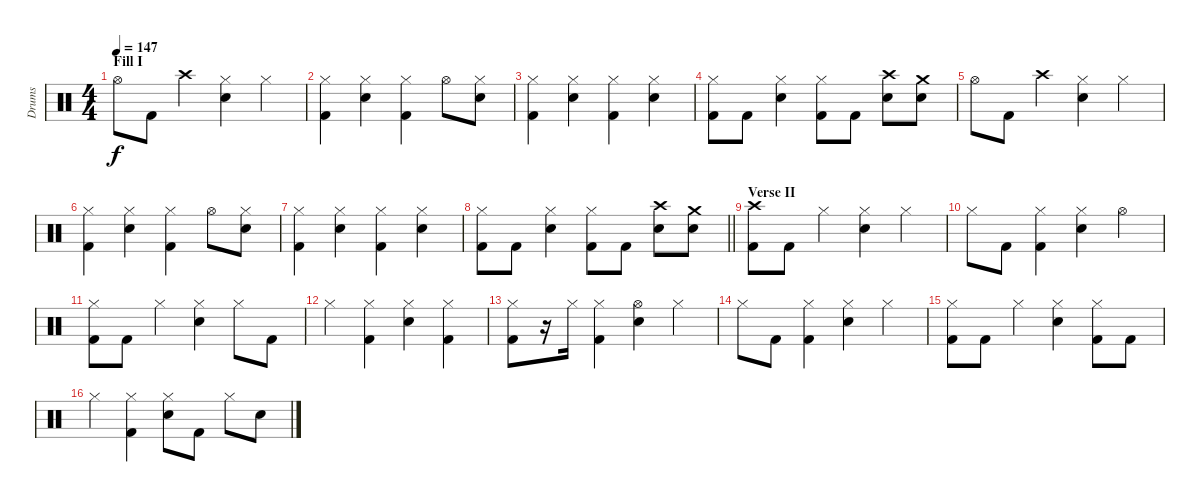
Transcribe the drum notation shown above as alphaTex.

\track ("Drums" "Drums") {instrument percussion}
\staff {score}
\articulation defaults
\ts (4 4)
\section ("" "Fill I")
\tempo 147
\clef neutral
\ks c "Hi-Hat (open)".8{dy f} "Kick (hit) 2".8 "Crash high (hit)".4
("Hi-Hat (closed)" "Electric Snare (hit)").4 "Hi-Hat (closed)".4 |
("Hi-Hat (closed)" "Kick (hit) 2").4 ("Hi-Hat (closed)" "Electric Snare (hit)").4 ("Hi-Hat (closed)" "Kick (hit) 2").4 "Hi-Hat (open)".8 ("Hi-Hat (closed)" "Electric Snare (hit)").8 |
("Hi-Hat (closed)" "Kick (hit) 2").4 ("Hi-Hat (closed)" "Electric Snare (hit)").4 ("Hi-Hat (closed)" "Kick (hit) 2").4 ("Hi-Hat (closed)" "Electric Snare (hit)").4 |
("Hi-Hat (closed)" "Kick (hit) 2").8 "Kick (hit) 2".8 ("Hi-Hat (closed)" "Electric Snare (hit)").4 ("Hi-Hat (closed)" "Kick (hit) 2").8 "Kick (hit) 2".8 ("Crash high (hit)" "Electric Snare (hit)").8 ("Crash medium (hit)" "Electric Snare (hit)").8 |
"Hi-Hat (open)".8 "Kick (hit) 2".8 "Crash high (hit)".4 ("Hi-Hat (closed)" "Electric Snare (hit)").4 "Hi-Hat (closed)".4 |
("Hi-Hat (closed)" "Kick (hit) 2").4 ("Hi-Hat (closed)" "Electric Snare (hit)").4 ("Hi-Hat (closed)" "Kick (hit) 2").4 "Hi-Hat (open)".8 ("Hi-Hat (closed)" "Electric Snare (hit)").8 |
("Hi-Hat (closed)" "Kick (hit) 2").4 ("Hi-Hat (closed)" "Electric Snare (hit)").4 ("Hi-Hat (closed)" "Kick (hit) 2").4 ("Hi-Hat (closed)" "Electric Snare (hit)").4 |
\barLineRight lightlight
("Hi-Hat (closed)" "Kick (hit) 2").8 "Kick (hit) 2".8 ("Hi-Hat (closed)" "Electric Snare (hit)").4 ("Hi-Hat (closed)" "Kick (hit) 2").8 "Kick (hit) 2".8 ("Crash high (hit)" "Electric Snare (hit)").8 ("Crash medium (hit)" "Electric Snare (hit)").8 |
\section ("" "Verse II")
("Crash high (hit)" "Kick (hit) 2").8 "Kick (hit) 2".8 "Hi-Hat (closed)".4 ("Hi-Hat (closed)" "Electric Snare (hit)").4 "Hi-Hat (closed)".4 |
"Hi-Hat (closed)".8 "Kick (hit) 2".8 ("Hi-Hat (closed)" "Kick (hit) 2").4 ("Hi-Hat (closed)" "Electric Snare (hit)").4 "Hi-Hat (open)".4 |
("Hi-Hat (closed)" "Kick (hit) 2").8 "Kick (hit) 2".8 "Hi-Hat (closed)".4 ("Hi-Hat (closed)" "Electric Snare (hit)").4 "Hi-Hat (closed)".8 "Kick (hit) 2".8 |
"Hi-Hat (closed)".4 ("Hi-Hat (closed)" "Kick (hit) 2").4 ("Hi-Hat (closed)" "Electric Snare (hit)").4 ("Hi-Hat (closed)" "Kick (hit) 2").4 |
("Hi-Hat (closed)" "Kick (hit) 2").8 r.16 "Hi-Hat (closed)".16 ("Hi-Hat (closed)" "Kick (hit) 2").4 ("Hi-Hat (open)" "Electric Snare (hit)").4 "Hi-Hat (closed)".4 |
"Hi-Hat (closed)".8 "Kick (hit) 2".8 ("Hi-Hat (closed)" "Kick (hit) 2").4 ("Hi-Hat (closed)" "Electric Snare (hit)").4 "Hi-Hat (closed)".4 |
("Hi-Hat (closed)" "Kick (hit) 2").8 "Kick (hit) 2".8 "Hi-Hat (closed)".4 ("Hi-Hat (closed)" "Electric Snare (hit)").4 ("Hi-Hat (closed)" "Kick (hit) 2").8 "Kick (hit) 2".8 |
"Hi-Hat (closed)".4 ("Hi-Hat (closed)" "Kick (hit) 2").4 ("Hi-Hat (closed)" "Electric Snare (hit)").8 "Kick (hit) 2".8 "Hi-Hat (closed)".8 "Electric Snare (hit)".8
